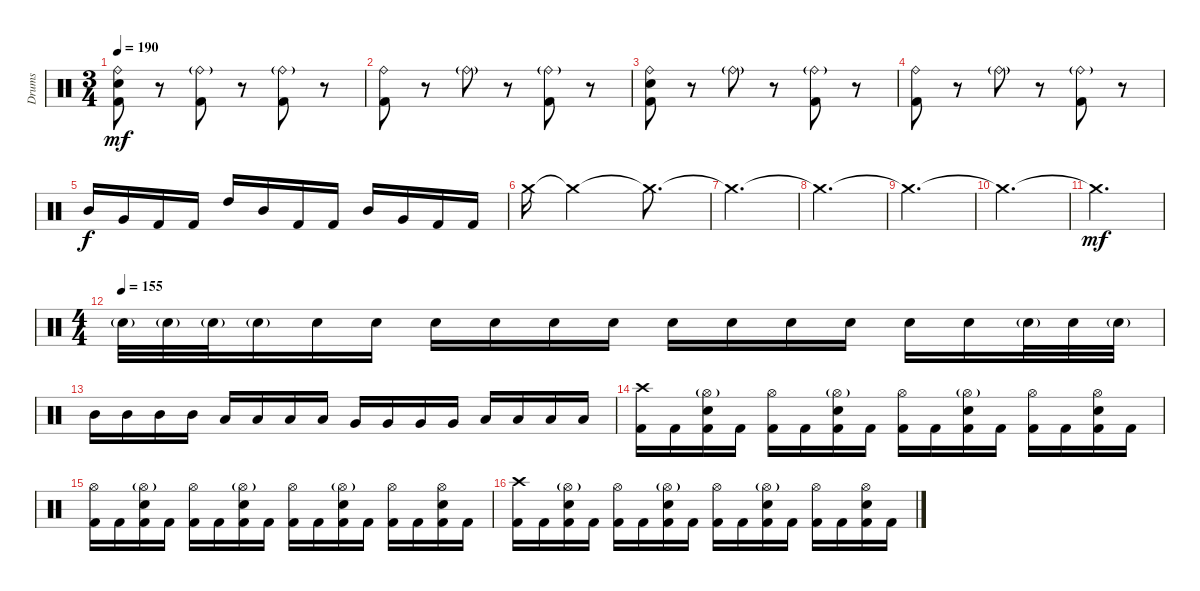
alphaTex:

\track ("Drums" "Drums") {instrument percussion}
\staff {score}
\articulation defaults
\ts (3 4)
\tempo 190
\clef neutral
\ks c
("Ride (bell)" "Kick (hit) 2" "Snare (hit) 2").8{dy mf} r.8 ("Ride (bell)"{g} "Kick (hit) 2").8 r.8 ("Ride (bell)"{g} "Kick (hit) 2").8 r.8 |
("Ride (bell)" "Kick (hit) 2").8 r.8 "Ride (bell)"{g}.8 r.8 ("Ride (bell)"{g} "Kick (hit) 2").8 r.8 |
("Ride (bell)" "Kick (hit) 2" "Snare (hit) 2").8 r.8 "Ride (bell)"{g}.8 r.8 ("Ride (bell)"{g} "Kick (hit) 2").8 r.8 |
("Ride (bell)" "Kick (hit) 2").8 r.8 "Ride (bell)"{g}.8 r.8 ("Ride (bell)"{g} "Kick (hit) 2").8 r.8 |
"Mid Tom (hit)".16{dy f} "Very Low Tom (hit)".16 "Kick (hit) 2".16 "Kick (hit) 2".16 "High Tom (hit)".16 "Mid Tom (hit)".16 "Kick (hit) 2".16 "Kick (hit) 2".16 "Mid Tom (hit)".16 "Very Low Tom (hit)".16 "Kick (hit) 2".16 "Kick (hit) 2".16 |
"Crash medium (hit)".16 "Crash medium (hit)"{t}.2 "Crash medium (hit)"{t}.8{d} |
"Crash medium (hit)"{t}.2{d} |
"Crash medium (hit)"{t}.2{d} |
"Crash medium (hit)"{t}.2{d} |
"Crash medium (hit)"{t}.2{d} |
"Crash medium (hit)"{t}.2{d dy mf} |
\ts (4 4)
\tempo (155)
"Snare (hit) 2"{g}.32 "Snare (hit) 2"{g}.32 "Snare (hit) 2"{g}.32 "Snare (hit) 2"{g}.16 "Snare (hit) 2".16 "Snare (hit) 2".16 "Snare (hit) 2".16 "Snare (hit) 2".16 "Snare (hit) 2".16 "Snare (hit) 2".16 "Snare (hit) 2".16 "Snare (hit) 2".16 "Snare (hit) 2".16 "Snare (hit) 2".16 "Snare (hit) 2".16 "Snare (hit) 2".16 "Snare (hit) 2"{g}.32 "Snare (hit) 2".32 "Snare (hit) 2"{g}.32 |
"Mid Tom (hit)".16 "Mid Tom (hit)".16 "Mid Tom (hit)".16 "Mid Tom (hit)".16 "Low Tom (hit)".16 "Low Tom (hit)".16 "Low Tom (hit)".16 "Low Tom (hit)".16 "Very Low Tom (hit)".16 "Very Low Tom (hit)".16 "Very Low Tom (hit)".16 "Very Low Tom (hit)".16 "Low Floor Tom (hit)".16 "Low Floor Tom (hit)".16 "Low Floor Tom (hit)".16 "Low Floor Tom (hit)".16 |
("Kick (hit) 2" "Crash high (hit)").16 "Kick (hit) 2".16 ("Kick (hit) 2" "Snare (hit) 2" "Hi-Hat (open)"{g}).16 "Kick (hit) 2".16 ("Kick (hit) 2" "Hi-Hat (open)").16 "Kick (hit) 2".16 ("Kick (hit) 2" "Snare (hit) 2" "Hi-Hat (open)"{g}).16 "Kick (hit) 2".16 ("Kick (hit) 2" "Hi-Hat (open)").16 "Kick (hit) 2".16 ("Kick (hit) 2" "Snare (hit) 2" "Hi-Hat (open)"{g}).16 "Kick (hit) 2".16 ("Kick (hit) 2" "Hi-Hat (open)").16 "Kick (hit) 2".16 ("Kick (hit) 2" "Snare (hit) 2" "Hi-Hat (open)").16 "Kick (hit) 2".16 |
("Kick (hit) 2" "Hi-Hat (open)").16 "Kick (hit) 2".16 ("Kick (hit) 2" "Snare (hit) 2" "Hi-Hat (open)"{g}).16 "Kick (hit) 2".16 ("Kick (hit) 2" "Hi-Hat (open)").16 "Kick (hit) 2".16 ("Kick (hit) 2" "Snare (hit) 2" "Hi-Hat (open)"{g}).16 "Kick (hit) 2".16 ("Kick (hit) 2" "Hi-Hat (open)").16 "Kick (hit) 2".16 ("Kick (hit) 2" "Snare (hit) 2" "Hi-Hat (open)"{g}).16 "Kick (hit) 2".16 ("Kick (hit) 2" "Hi-Hat (open)").16 "Kick (hit) 2".16 ("Kick (hit) 2" "Snare (hit) 2" "Hi-Hat (open)").16 "Kick (hit) 2".16 |
("Kick (hit) 2" "Crash high (hit)").16 "Kick (hit) 2".16 ("Kick (hit) 2" "Snare (hit) 2" "Hi-Hat (open)"{g}).16 "Kick (hit) 2".16 ("Kick (hit) 2" "Hi-Hat (open)").16 "Kick (hit) 2".16 ("Kick (hit) 2" "Snare (hit) 2" "Hi-Hat (open)"{g}).16 "Kick (hit) 2".16 ("Kick (hit) 2" "Hi-Hat (open)").16 "Kick (hit) 2".16 ("Kick (hit) 2" "Snare (hit) 2" "Hi-Hat (open)"{g}).16 "Kick (hit) 2".16 ("Kick (hit) 2" "Hi-Hat (open)").16 "Kick (hit) 2".16 ("Kick (hit) 2" "Snare (hit) 2" "Hi-Hat (open)").16 "Kick (hit) 2".16
